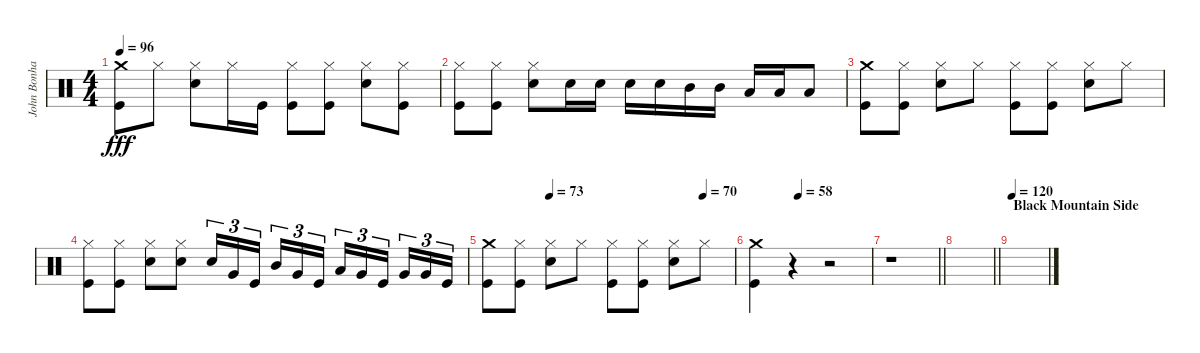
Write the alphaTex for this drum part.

\track ("John Bonham - Drums" "John Bonha") {instrument percussion}
\staff {score}
\articulation defaults
\ts (4 4)
\tempo 96
\clef neutral
\ks c
("Crash medium (hit)" "Kick (hit)").8{dy fff} "Hi-Hat (closed)".8 ("Hi-Hat (closed)" "Snare (hit) 2").8 "Hi-Hat (closed)".16 "Kick (hit)".16 ("Hi-Hat (closed)" "Kick (hit)").8 ("Hi-Hat (closed)" "Kick (hit)").8 ("Hi-Hat (closed)" "Snare (hit) 2").8 ("Hi-Hat (closed)" "Kick (hit)").8 |
("Hi-Hat (closed)" "Kick (hit)").8 ("Hi-Hat (closed)" "Kick (hit)").8 ("Hi-Hat (closed)" "Snare (hit) 2").8 "Snare (hit) 2".16 "Snare (hit) 2".16 "Snare (hit) 2".16 "Snare (hit) 2".16 "Mid Tom (hit)".16 "Mid Tom (hit)".16 "Low Tom (hit)".16 "Low Tom (hit)".16 "Low Tom (hit)".8 |
("Crash medium (hit)" "Kick (hit)").8 ("Hi-Hat (closed)" "Kick (hit)").8 ("Hi-Hat (closed)" "Snare (hit) 2").8 "Hi-Hat (closed)".8 ("Hi-Hat (closed)" "Kick (hit)").8 ("Hi-Hat (closed)" "Kick (hit)").8 ("Hi-Hat (closed)" "Snare (hit) 2").8 "Hi-Hat (closed)".8 |
("Hi-Hat (closed)" "Kick (hit)").8 ("Hi-Hat (closed)" "Kick (hit)").8 ("Hi-Hat (closed)" "Snare (hit) 2").8 ("Hi-Hat (closed)" "Snare (hit) 2").8 "Snare (hit) 2".16{tu (3 2)} "Very Low Tom (hit)".16{tu (3 2)} "Kick (hit)".16{tu (3 2) beam splitsecondary} "Mid Tom (hit)".16{tu (3 2)} "Very Low Tom (hit)".16{tu (3 2)} "Kick (hit)".16{tu (3 2)} "Low Tom (hit)".16{tu (3 2)} "Very Low Tom (hit)".16{tu (3 2)} "Kick (hit)".16{tu (3 2) beam splitsecondary} "Very Low Tom (hit)".16{tu (3 2)} "Very Low Tom (hit)".16{tu (3 2)} "Kick (hit)".16{tu (3 2)} |
\tempo (73 0.25)
\tempo (70 0.875)
("Crash medium (hit)" "Kick (hit)").8 ("Hi-Hat (closed)" "Kick (hit)").8 ("Hi-Hat (closed)" "Snare (hit) 2").8 "Hi-Hat (closed)".8 ("Hi-Hat (closed)" "Kick (hit)").8 ("Hi-Hat (closed)" "Kick (hit)").8 ("Hi-Hat (closed)" "Snare (hit) 2").8 "Hi-Hat (closed)".8 |
\tempo (58 0.375)
("Crash medium (hit)" "Kick (hit)").4 r.4 r.2 |
\barLineRight lightlight
r.1 |
\barLineRight lightlight
|
\section ("" "Black Mountain Side")
\tempo 120
